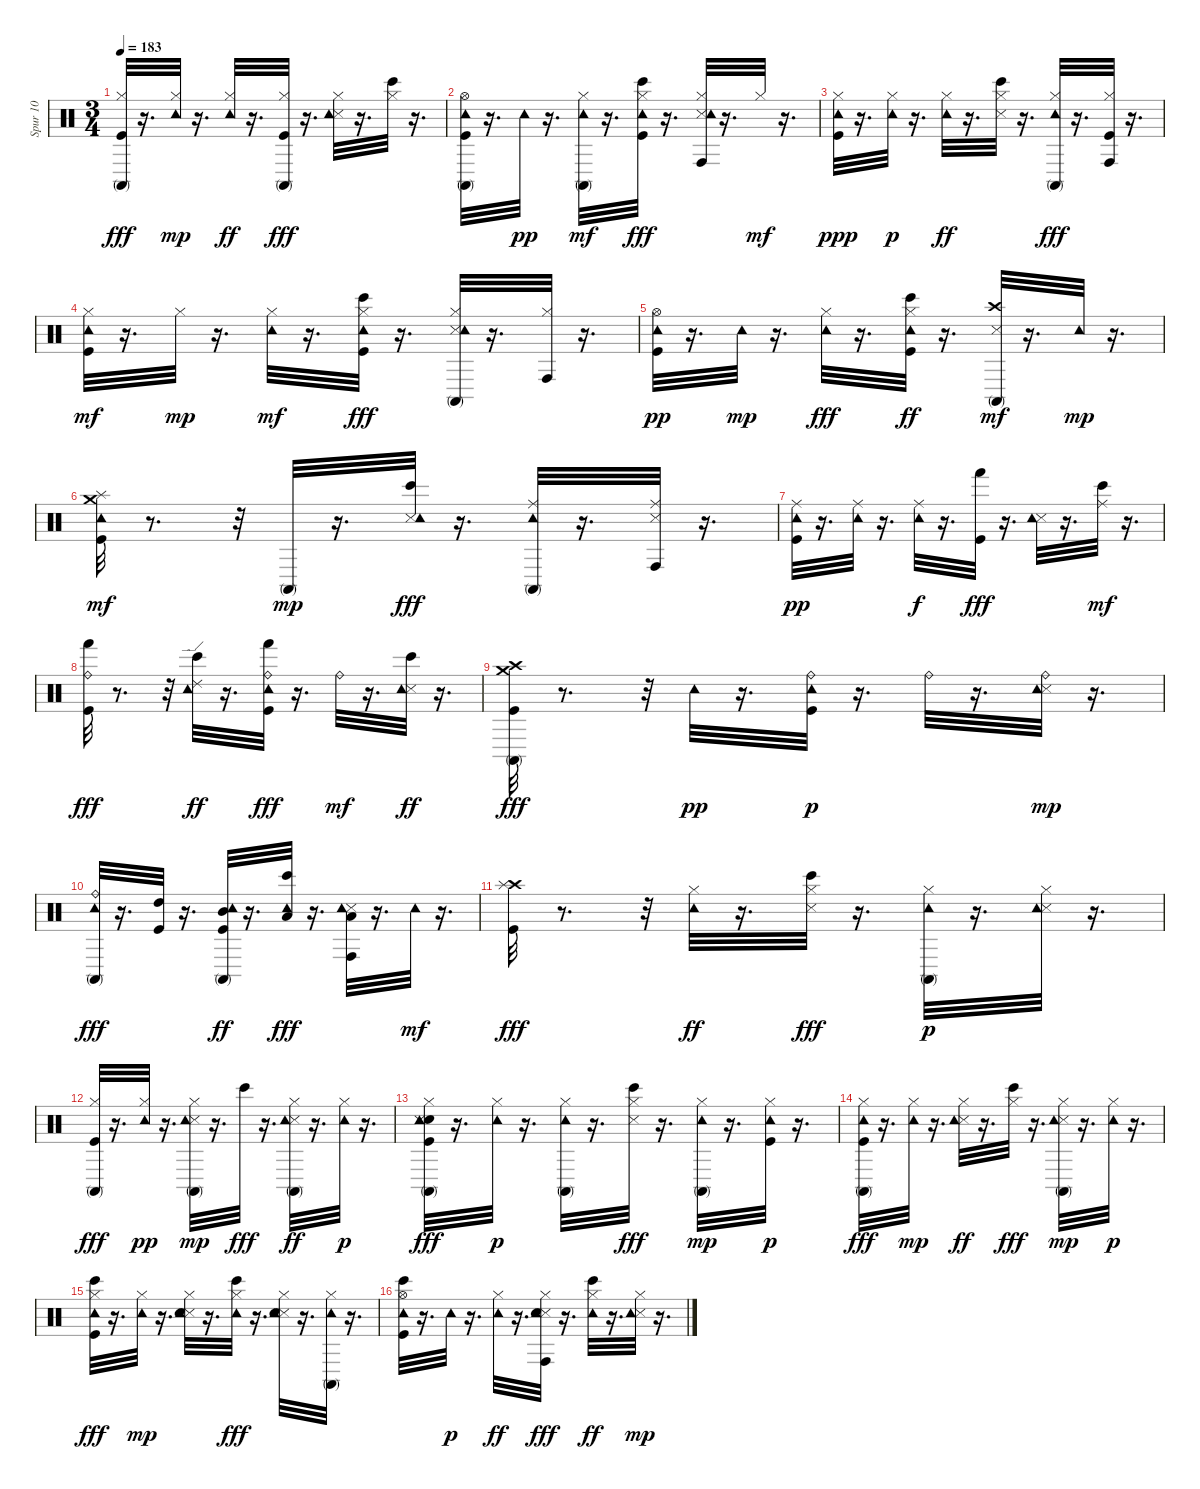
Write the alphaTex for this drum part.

\track ("Spur 10" "Spur 10") {instrument percussion}
\staff {score}
\articulation defaults
\ts (3 4)
\tempo 183
\clef neutral
\ks c
("Kick (hit)" "Hi-Hat (closed)" "Conga high (mute)").32{dy fff} r.16{d} ("Hi-Hat (closed)" "Tambourine (hit)").32{dy mp} r.16{d} ("Hi-Hat (closed)" "Tambourine (hit)").32{dy ff} r.16{d} ("Kick (hit)" "Hi-Hat (closed)" "Conga high (mute)").32{dy fff} r.16{d} ("Snare (side stick) 3" "Hi-Hat (closed)" "Tambourine (hit)").32 r.16{d} ("Hi-Hat (closed)" "Bongo High (hit)").32 r.16{d} |
("Kick (hit)" "Hi-Hat (open)" "Tambourine (hit)" "Conga high (mute)").32 r.16{d} "Tambourine (hit)".32{dy pp} r.16{d} ("Hi-Hat (closed)" "Tambourine (hit)" "Conga high (mute)").32{dy mf} r.16{d} ("Kick (hit)" "Hi-Hat (closed)" "Tambourine (hit)" "Bongo High (hit)").32{dy fff} r.16{d} ("Snare (side stick) 3" "Hi-Hat (closed)" "Tambourine (hit)" "Conga high (hit)").32 r.16{d} "Hi-Hat (closed)".32{dy mf} r.16{d} |
("Kick (hit)" "Hi-Hat (closed)" "Tambourine (hit)").32{dy ppp} r.16{d} ("Hi-Hat (closed)" "Tambourine (hit)").32{dy p} r.16{d} ("Hi-Hat (closed)" "Tambourine (hit)").32{dy ff} r.16{d} ("Snare (side stick) 3" "Hi-Hat (closed)" "Bongo High (hit)").32 r.16{d} ("Hi-Hat (closed)" "Tambourine (hit)" "Conga high (mute)").32{dy fff} r.16{d} ("Kick (hit)" "Hi-Hat (closed)" "Conga high (hit)").32 r.16{d} |
("Kick (hit)" "Hi-Hat (closed)" "Tambourine (hit)").32{dy mf} r.16{d} "Hi-Hat (closed)".32{dy mp} r.16{d} ("Hi-Hat (closed)" "Tambourine (hit)").32{dy mf} r.16{d} ("Kick (hit)" "Hi-Hat (closed)" "Tambourine (hit)" "Bongo High (hit)").32{dy fff} r.16{d} ("Snare (side stick) 3" "Hi-Hat (closed)" "Tambourine (hit)" "Conga high (mute)").32 r.16{d} ("Hi-Hat (closed)" "Conga high (hit)").32 r.16{d} |
("Kick (hit)" "Hi-Hat (open)" "Tambourine (hit)").32{dy pp} r.16{d} "Tambourine (hit)".32{dy mp} r.16{d} ("Hi-Hat (closed)" "Tambourine (hit)").32{dy fff} r.16{d} ("Kick (hit)" "Hi-Hat (closed)" "Tambourine (hit)" "Bongo High (hit)").32{dy ff} r.16{d} ("Snare (side stick) 3" "Crash high (hit)" "Conga high (mute)").32{dy mf} r.16{d} "Tambourine (hit)".32{dy mp} r.16{d} |
("Kick (hit)" "Tambourine (hit)" "Splash (hit)" "Crash medium (hit)").32{dy mf} r.8{d} r.32 "Conga high (mute)".32{dy mp} r.16{d} ("Snare (side stick) 3" "Tambourine (hit)" "Bongo High (hit)").32{dy fff} r.16{d} ("Ride (middle)" "Tambourine (hit)" "Conga high (mute)").32 r.16{d} ("Snare (side stick) 3" "Ride (middle)" "Conga high (hit)").32 r.16{d} |
("Kick (hit)" "Ride (middle)" "Tambourine (hit)").32{dy pp} r.16{d} ("Ride (middle)" "Tambourine (hit)").32 r.16{d} ("Ride (middle)" "Tambourine (hit)").32{dy f} r.16{d} ("Kick (hit)" "Hand (hit)").32{dy fff} r.16{d} ("Snare (side stick) 3" "Tambourine (hit)").32 r.16{d} ("Ride (middle)" "Bongo High (hit)").32{dy mf} r.16{d} |
("Kick (hit)" "Ride (bell)" "Hand (hit)").32{dy fff} r.8{d} r.32 ("Tambourine (hit)" "Ride (edge) 2" "Bongo High (hit)").32{dy ff} r.16{d} ("Kick (hit)" "Ride (bell)" "Tambourine (hit)" "Hand (hit)").32{dy fff} r.16{d} "Ride (bell)".32{dy mf} r.16{d} ("Snare (side stick) 3" "Tambourine (hit)" "Bongo High (hit)").32{dy ff} r.16{d} |
("Kick (hit)" "Crash high (hit)" "Crash medium (hit)" "Conga high (mute)").32{dy fff} r.8{d} r.32 "Tambourine (hit)".32{dy pp} r.16{d} ("Kick (hit)" "Ride (bell)" "Tambourine (hit)").32{dy p} r.16{d} "Ride (bell)".32 r.16{d} ("Snare (side stick) 3" "Ride (bell)" "Tambourine (hit)").32{dy mp} r.16{d} |
("Ride (bell)" "Tambourine (hit)" "Conga high (mute)").32{dy fff} r.16{d} ("Kick (hit)" "High Tom (hit)").32 r.16{d} ("Kick (hit)" "Mid Tom (hit)" "Tambourine (hit)" "Conga high (mute)").32{dy ff} r.16{d} ("Low Tom (hit)" "Tambourine (hit)" "Bongo High (hit)").32{dy fff} r.16{d} ("Snare (side stick) 3" "Low Tom (hit)" "Tambourine (hit)" "Conga high (hit)").32 r.16{d} "Tambourine (hit)".32{dy mf} r.16{d} |
("Kick (hit)" "Crash high (hit)" "Splash (hit)").32{dy fff} r.8{d} r.32 ("Hi-Hat (closed)" "Tambourine (hit)").32{dy ff} r.16{d} ("Snare (side stick) 3" "Hi-Hat (closed)" "Bongo High (hit)").32{dy fff} r.16{d} ("Hi-Hat (closed)" "Tambourine (hit)" "Conga high (mute)").32{dy p} r.16{d} ("Snare (side stick) 3" "Hi-Hat (closed)" "Tambourine (hit)").32 r.16{d} |
("Kick (hit)" "Hi-Hat (closed)" "Conga high (mute)").32{dy fff} r.16{d} ("Hi-Hat (closed)" "Tambourine (hit)").32{dy pp} r.16{d} ("Snare (side stick) 3" "Hi-Hat (closed)" "Tambourine (hit)" "Conga high (mute)").32{dy mp} r.16{d} "Bongo High (hit)".32{dy fff} r.16{d} ("Snare (side stick) 3" "Hi-Hat (closed)" "Tambourine (hit)" "Conga high (mute)").32{dy ff} r.16{d} ("Hi-Hat (closed)" "Tambourine (hit)").32{dy p} r.16{d} |
("Metronome (bell)" "Kick (hit)" "Snare (side stick) 3" "Hi-Hat (closed)" "Tambourine (hit)" "Conga high (mute)").32{dy fff} r.16{d} ("Hi-Hat (closed)" "Tambourine (hit)").32{dy p} r.16{d} ("Hi-Hat (closed)" "Tambourine (hit)" "Conga high (mute)").32 r.16{d} ("Snare (side stick) 3" "Hi-Hat (closed)" "Bongo High (hit)").32{dy fff} r.16{d} ("Hi-Hat (closed)" "Tambourine (hit)" "Conga high (mute)").32{dy mp} r.16{d} ("Kick (hit)" "Hi-Hat (closed)" "Tambourine (hit)").32{dy p} r.16{d} |
("Kick (hit)" "Hi-Hat (closed)" "Tambourine (hit)" "Conga high (mute)").32{dy fff} r.16{d} ("Hi-Hat (closed)" "Tambourine (hit)").32{dy mp} r.16{d} ("Snare (side stick) 3" "Hi-Hat (closed)" "Tambourine (hit)").32{dy ff} r.16{d} ("Hi-Hat (closed)" "Bongo High (hit)").32{dy fff} r.16{d} ("Snare (side stick) 3" "Hi-Hat (closed)" "Tambourine (hit)" "Conga high (mute)").32{dy mp} r.16{d} ("Hi-Hat (closed)" "Tambourine (hit)").32{dy p} r.16{d} |
("Kick (hit)" "Hi-Hat (closed)" "Tambourine (hit)" "Bongo High (hit)").32{dy fff} r.16{d} ("Hi-Hat (closed)" "Tambourine (hit)").32{dy mp} r.16{d} ("Snare (side stick) 3" "Hand Clap (hit)" "Hi-Hat (closed)" "Tambourine (hit)").32 r.16{d} ("Hi-Hat (closed)" "Tambourine (hit)" "Bongo High (hit)").32{dy fff} r.16{d} ("Snare (side stick) 3" "Hand Clap (hit)" "Hi-Hat (closed)" "Tambourine (hit)").32 r.16{d} ("Hi-Hat (closed)" "Tambourine (hit)" "Conga high (mute)").32 r.16{d} |
("Kick (hit)" "Hi-Hat (open)" "Tambourine (hit)" "Bongo High (hit)").32 r.16{d} "Tambourine (hit)".32{dy p} r.16{d} ("Hi-Hat (closed)" "Tambourine (hit)").32{dy ff} r.16{d} ("Snare (side stick) 3" "Hand Clap (hit)" "Hi-Hat (closed)" "Tambourine (hit)" "Conga high (hit)").32{dy fff} r.16{d} ("Hi-Hat (closed)" "Tambourine (hit)" "Bongo High (hit)").32{dy ff} r.16{d} ("Snare (side stick) 3" "Hi-Hat (closed)" "Tambourine (hit)").32{dy mp} r.16{d}
